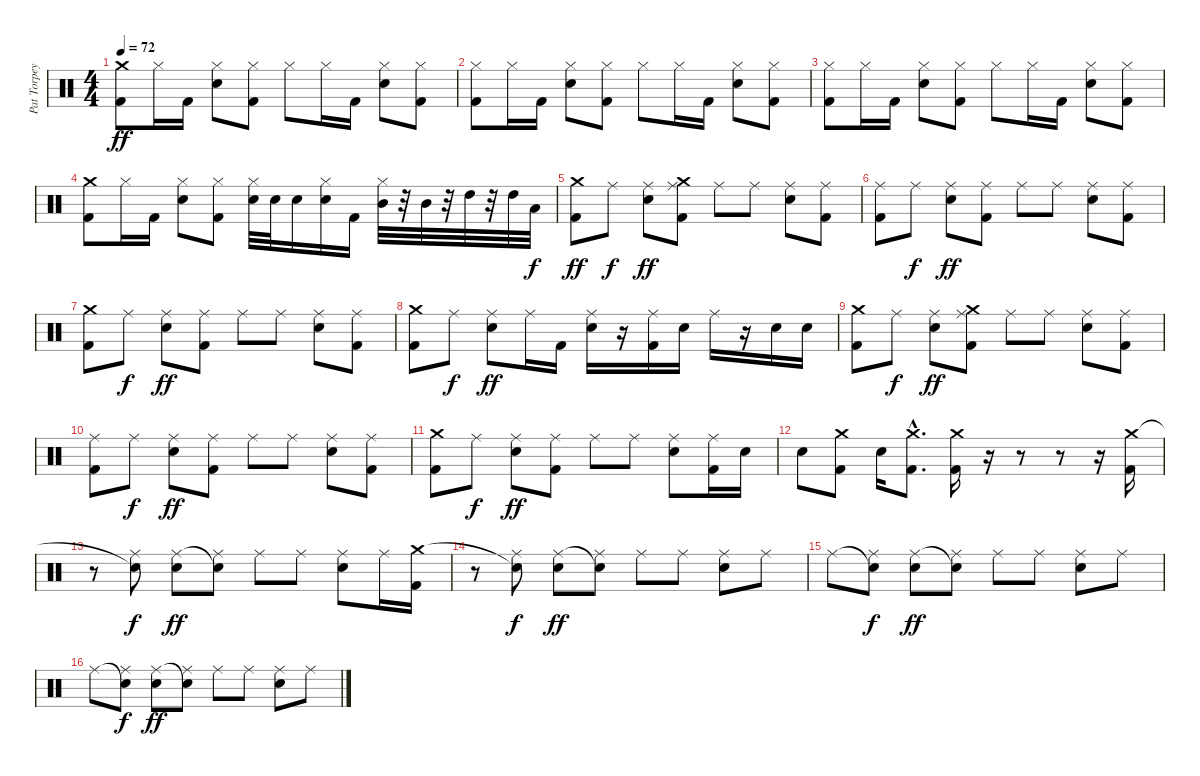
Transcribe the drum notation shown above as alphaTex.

\track ("Pat Torpey" "Pat Torpey") {instrument percussion}
\staff {score}
\articulation defaults
\ts (4 4)
\tempo 72
\clef neutral
\ks c
("Crash medium (hit)" "Kick (hit) 2").8{dy ff} "Hi-Hat (closed)".16 "Kick (hit) 2".16 ("Hi-Hat (closed)" "Snare (hit) 2").8 ("Hi-Hat (closed)" "Kick (hit) 2").8 "Hi-Hat (closed)".8 "Hi-Hat (closed)".16 "Kick (hit) 2".16 ("Hi-Hat (closed)" "Snare (hit) 2").8 ("Hi-Hat (closed)" "Kick (hit) 2").8 |
("Hi-Hat (closed)" "Kick (hit) 2").8 "Hi-Hat (closed)".16 "Kick (hit) 2".16 ("Hi-Hat (closed)" "Snare (hit) 2").8 ("Hi-Hat (closed)" "Kick (hit) 2").8 "Hi-Hat (closed)".8 "Hi-Hat (closed)".16 "Kick (hit) 2".16 ("Hi-Hat (closed)" "Snare (hit) 2").8 ("Hi-Hat (closed)" "Kick (hit) 2").8 |
("Hi-Hat (closed)" "Kick (hit) 2").8 "Hi-Hat (closed)".16 "Kick (hit) 2".16 ("Hi-Hat (closed)" "Snare (hit) 2").8 ("Hi-Hat (closed)" "Kick (hit) 2").8 "Hi-Hat (closed)".8 "Hi-Hat (closed)".16 "Kick (hit) 2".16 ("Hi-Hat (closed)" "Snare (hit) 2").8 ("Hi-Hat (closed)" "Kick (hit) 2").8 |
("Crash medium (hit)" "Kick (hit) 2").8 "Hi-Hat (closed)".16 "Kick (hit) 2".16 ("Hi-Hat (closed)" "Snare (hit) 2").8 ("Hi-Hat (closed)" "Kick (hit) 2").8 ("Hi-Hat (closed)" "Snare (hit) 2").32 "Snare (hit) 2".32 "Snare (hit) 2".16 ("Hi-Hat (closed)" "Snare (hit) 2").16 "Kick (hit) 2".16 ("Hi-Hat (closed)" "Mid Tom (hit)").32 r.32 "Mid Tom (hit)".32 r.32 "High Tom (hit)".32 r.32 "High Tom (hit)".32 "Low Floor Tom (hit)".32{dy f} |
("Crash medium (hit)" "Kick (hit) 2").8{dy ff} "Ride (middle)".8{dy f} ("Ride (middle)" "Snare (hit) 2").8{dy ff} ("Crash medium (hit)" "Ride (middle)" "Kick (hit) 2").8 "Ride (middle)".8 "Ride (middle)".8 ("Ride (middle)" "Snare (hit) 2").8 ("Ride (middle)" "Kick (hit) 2").8 |
("Ride (middle)" "Kick (hit) 2").8 "Ride (middle)".8{dy f} ("Ride (middle)" "Snare (hit) 2").8{dy ff} ("Ride (middle)" "Kick (hit) 2").8 "Ride (middle)".8 "Ride (middle)".8 ("Ride (middle)" "Snare (hit) 2").8 ("Ride (middle)" "Kick (hit) 2").8 |
("Crash medium (hit)" "Kick (hit) 2").8 "Ride (middle)".8{dy f} ("Ride (middle)" "Snare (hit) 2").8{dy ff} ("Ride (middle)" "Kick (hit) 2").8 "Ride (middle)".8 "Ride (middle)".8 ("Ride (middle)" "Snare (hit) 2").8 ("Ride (middle)" "Kick (hit) 2").8 |
("Crash medium (hit)" "Kick (hit) 2").8 "Ride (middle)".8{dy f} ("Ride (middle)" "Snare (hit) 2").8{dy ff} "Ride (middle)".16 "Kick (hit) 2".16 ("Ride (middle)" "Snare (hit) 2").16 r.16 ("Ride (middle)" "Kick (hit) 2").16 "Snare (hit) 2".16 "Ride (middle)".16 r.16 "Snare (hit) 2".16 "Snare (hit) 2".16 |
("Crash medium (hit)" "Kick (hit) 2").8 "Ride (middle)".8{dy f} ("Ride (middle)" "Snare (hit) 2").8{dy ff} ("Crash medium (hit)" "Ride (middle)" "Kick (hit) 2").8 "Ride (middle)".8 "Ride (middle)".8 ("Ride (middle)" "Snare (hit) 2").8 ("Ride (middle)" "Kick (hit) 2").8 |
("Ride (middle)" "Kick (hit) 2").8 "Ride (middle)".8{dy f} ("Ride (middle)" "Snare (hit) 2").8{dy ff} ("Ride (middle)" "Kick (hit) 2").8 "Ride (middle)".8 "Ride (middle)".8 ("Ride (middle)" "Snare (hit) 2").8 ("Ride (middle)" "Kick (hit) 2").8 |
("Crash medium (hit)" "Kick (hit) 2").8 "Ride (middle)".8{dy f} ("Ride (middle)" "Snare (hit) 2").8{dy ff} ("Ride (middle)" "Kick (hit) 2").8 "Ride (middle)".8 "Ride (middle)".8 ("Ride (middle)" "Snare (hit) 2").8 ("Ride (middle)" "Kick (hit) 2").16 "Snare (hit) 2".16 |
"Snare (hit) 2".8 ("Crash medium (hit)" "Kick (hit) 2").8 "Snare (hit) 2".16 ("Crash medium (hit)"{hac} "Kick (hit) 2"{hac}).8{d} ("Crash medium (hit)" "Kick (hit) 2").16 r.16 r.8 r.8 r.16 ("Crash medium (hit)" "Kick (hit) 2").16 |
r.8 ("Snare (hit)"{t} "Ride (middle)").8{dy f} ("Ride (middle)" "Snare (hit) 2").8{dy ff} ("Snare (hit)"{t} "Ride (middle)").8 "Ride (middle)".8 "Ride (middle)".8 ("Ride (middle)" "Snare (hit) 2").8 "Ride (middle)".16 ("Crash medium (hit)" "Kick (hit) 2").16 |
r.8 ("Snare (hit)"{t} "Ride (middle)").8{dy f} ("Ride (middle)" "Snare (hit) 2").8{dy ff} ("Snare (hit)"{t} "Ride (middle)").8 "Ride (middle)".8 "Ride (middle)".8 ("Ride (middle)" "Snare (hit) 2").8 "Ride (middle)".8 |
"Ride (middle)".8 ("Snare (hit)"{t} "Ride (middle)").8{dy f} ("Ride (middle)" "Snare (hit) 2").8{dy ff} ("Snare (hit)"{t} "Ride (middle)").8 "Ride (middle)".8 "Ride (middle)".8 ("Ride (middle)" "Snare (hit) 2").8 "Ride (middle)".8 |
"Ride (middle)".8 ("Snare (hit)"{t} "Ride (middle)").8{dy f} ("Ride (middle)" "Snare (hit) 2").8{dy ff} ("Snare (hit)"{t} "Ride (middle)").8 "Ride (middle)".8 "Ride (middle)".8 ("Ride (middle)" "Snare (hit) 2").8 "Ride (middle)".8
